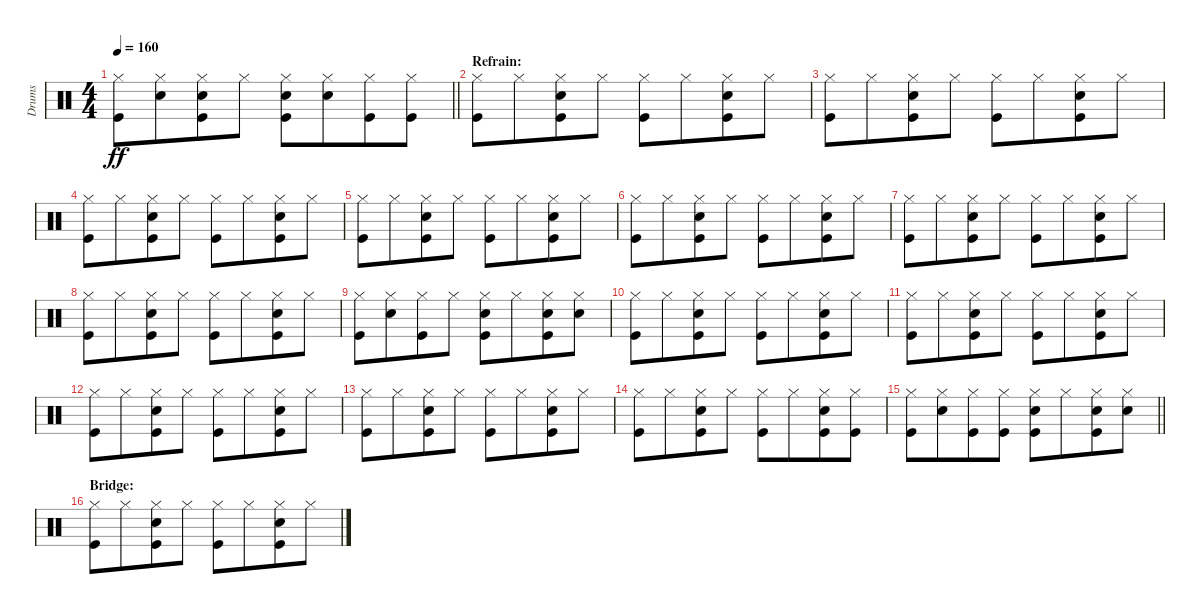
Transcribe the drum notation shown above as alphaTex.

\track ("Drums" "Drums") {instrument percussion}
\staff {score}
\articulation defaults
\ts (4 4)
\tempo 160
\clef neutral
\barLineRight lightlight
\ks c
("Hi-Hat (closed)" "Kick (hit)").8{dy ff} ("Hi-Hat (closed)" "Snare (hit) 2").8{beam merge} ("Hi-Hat (closed)" "Snare (hit) 2" "Kick (hit)").8 "Hi-Hat (closed)".8 ("Hi-Hat (closed)" "Snare (hit) 2" "Kick (hit)").8 ("Hi-Hat (closed)" "Snare (hit) 2").8{beam merge} ("Hi-Hat (closed)" "Kick (hit)").8 ("Hi-Hat (closed)" "Kick (hit)").8 |
\section ("" "Refrain:")
("Hi-Hat (closed)" "Kick (hit)").8 "Hi-Hat (closed)".8{beam merge} ("Hi-Hat (closed)" "Snare (hit) 2" "Kick (hit)").8 "Hi-Hat (closed)".8 ("Hi-Hat (closed)" "Kick (hit)").8 "Hi-Hat (closed)".8{beam merge} ("Hi-Hat (closed)" "Snare (hit) 2" "Kick (hit)").8 "Hi-Hat (closed)".8 |
("Hi-Hat (closed)" "Kick (hit)").8 "Hi-Hat (closed)".8{beam merge} ("Hi-Hat (closed)" "Snare (hit) 2" "Kick (hit)").8 "Hi-Hat (closed)".8 ("Hi-Hat (closed)" "Kick (hit)").8 "Hi-Hat (closed)".8{beam merge} ("Hi-Hat (closed)" "Snare (hit) 2" "Kick (hit)").8 "Hi-Hat (closed)".8 |
("Hi-Hat (closed)" "Kick (hit)").8 "Hi-Hat (closed)".8{beam merge} ("Hi-Hat (closed)" "Snare (hit) 2" "Kick (hit)").8 "Hi-Hat (closed)".8 ("Hi-Hat (closed)" "Kick (hit)").8 "Hi-Hat (closed)".8{beam merge} ("Hi-Hat (closed)" "Snare (hit) 2" "Kick (hit)").8 "Hi-Hat (closed)".8 |
("Hi-Hat (closed)" "Kick (hit)").8 "Hi-Hat (closed)".8{beam merge} ("Hi-Hat (closed)" "Snare (hit) 2" "Kick (hit)").8 "Hi-Hat (closed)".8 ("Hi-Hat (closed)" "Kick (hit)").8 "Hi-Hat (closed)".8{beam merge} ("Hi-Hat (closed)" "Snare (hit) 2" "Kick (hit)").8 "Hi-Hat (closed)".8 |
("Hi-Hat (closed)" "Kick (hit)").8 "Hi-Hat (closed)".8{beam merge} ("Hi-Hat (closed)" "Snare (hit) 2" "Kick (hit)").8 "Hi-Hat (closed)".8 ("Hi-Hat (closed)" "Kick (hit)").8 "Hi-Hat (closed)".8{beam merge} ("Hi-Hat (closed)" "Snare (hit) 2" "Kick (hit)").8 "Hi-Hat (closed)".8 |
("Hi-Hat (closed)" "Kick (hit)").8 "Hi-Hat (closed)".8{beam merge} ("Hi-Hat (closed)" "Snare (hit) 2" "Kick (hit)").8 "Hi-Hat (closed)".8 ("Hi-Hat (closed)" "Kick (hit)").8 "Hi-Hat (closed)".8{beam merge} ("Hi-Hat (closed)" "Snare (hit) 2" "Kick (hit)").8 "Hi-Hat (closed)".8 |
("Hi-Hat (closed)" "Kick (hit)").8 "Hi-Hat (closed)".8{beam merge} ("Hi-Hat (closed)" "Snare (hit) 2" "Kick (hit)").8 "Hi-Hat (closed)".8 ("Hi-Hat (closed)" "Kick (hit)").8 "Hi-Hat (closed)".8{beam merge} ("Hi-Hat (closed)" "Snare (hit) 2" "Kick (hit)").8 "Hi-Hat (closed)".8 |
("Hi-Hat (closed)" "Kick (hit)").8 ("Hi-Hat (closed)" "Snare (hit) 2").8{beam merge} ("Hi-Hat (closed)" "Kick (hit)").8 "Hi-Hat (closed)".8 ("Hi-Hat (closed)" "Snare (hit) 2" "Kick (hit)").8 "Hi-Hat (closed)".8{beam merge} ("Hi-Hat (closed)" "Snare (hit) 2" "Kick (hit)").8 ("Hi-Hat (closed)" "Snare (hit) 2").8 |
("Hi-Hat (closed)" "Kick (hit)").8 "Hi-Hat (closed)".8{beam merge} ("Hi-Hat (closed)" "Snare (hit) 2" "Kick (hit)").8 "Hi-Hat (closed)".8 ("Hi-Hat (closed)" "Kick (hit)").8 "Hi-Hat (closed)".8{beam merge} ("Hi-Hat (closed)" "Snare (hit) 2" "Kick (hit)").8 "Hi-Hat (closed)".8 |
("Hi-Hat (closed)" "Kick (hit)").8 "Hi-Hat (closed)".8{beam merge} ("Hi-Hat (closed)" "Snare (hit) 2" "Kick (hit)").8 "Hi-Hat (closed)".8 ("Hi-Hat (closed)" "Kick (hit)").8 "Hi-Hat (closed)".8{beam merge} ("Hi-Hat (closed)" "Snare (hit) 2" "Kick (hit)").8 "Hi-Hat (closed)".8 |
("Hi-Hat (closed)" "Kick (hit)").8 "Hi-Hat (closed)".8{beam merge} ("Hi-Hat (closed)" "Snare (hit) 2" "Kick (hit)").8 "Hi-Hat (closed)".8 ("Hi-Hat (closed)" "Kick (hit)").8 "Hi-Hat (closed)".8{beam merge} ("Hi-Hat (closed)" "Snare (hit) 2" "Kick (hit)").8 "Hi-Hat (closed)".8 |
("Hi-Hat (closed)" "Kick (hit)").8 "Hi-Hat (closed)".8{beam merge} ("Hi-Hat (closed)" "Snare (hit) 2" "Kick (hit)").8 "Hi-Hat (closed)".8 ("Hi-Hat (closed)" "Kick (hit)").8 "Hi-Hat (closed)".8{beam merge} ("Hi-Hat (closed)" "Snare (hit) 2" "Kick (hit)").8 "Hi-Hat (closed)".8 |
("Hi-Hat (closed)" "Kick (hit)").8 "Hi-Hat (closed)".8{beam merge} ("Hi-Hat (closed)" "Snare (hit) 2" "Kick (hit)").8 "Hi-Hat (closed)".8 ("Hi-Hat (closed)" "Kick (hit)").8 "Hi-Hat (closed)".8{beam merge} ("Hi-Hat (closed)" "Snare (hit) 2" "Kick (hit)").8 ("Hi-Hat (closed)" "Kick (hit)").8 |
\barLineRight lightlight
("Hi-Hat (closed)" "Kick (hit)").8 ("Hi-Hat (closed)" "Snare (hit) 2").8{beam merge} ("Hi-Hat (closed)" "Kick (hit)").8 ("Hi-Hat (closed)" "Kick (hit)").8 ("Hi-Hat (closed)" "Snare (hit) 2" "Kick (hit)").8 "Hi-Hat (closed)".8{beam merge} ("Hi-Hat (closed)" "Snare (hit) 2" "Kick (hit)").8 ("Hi-Hat (closed)" "Snare (hit) 2").8 |
\section ("" "Bridge:")
("Hi-Hat (closed)" "Kick (hit)").8 "Hi-Hat (closed)".8{beam merge} ("Hi-Hat (closed)" "Snare (hit) 2" "Kick (hit)").8 "Hi-Hat (closed)".8 ("Hi-Hat (closed)" "Kick (hit)").8 "Hi-Hat (closed)".8{beam merge} ("Hi-Hat (closed)" "Snare (hit) 2" "Kick (hit)").8 "Hi-Hat (closed)".8
